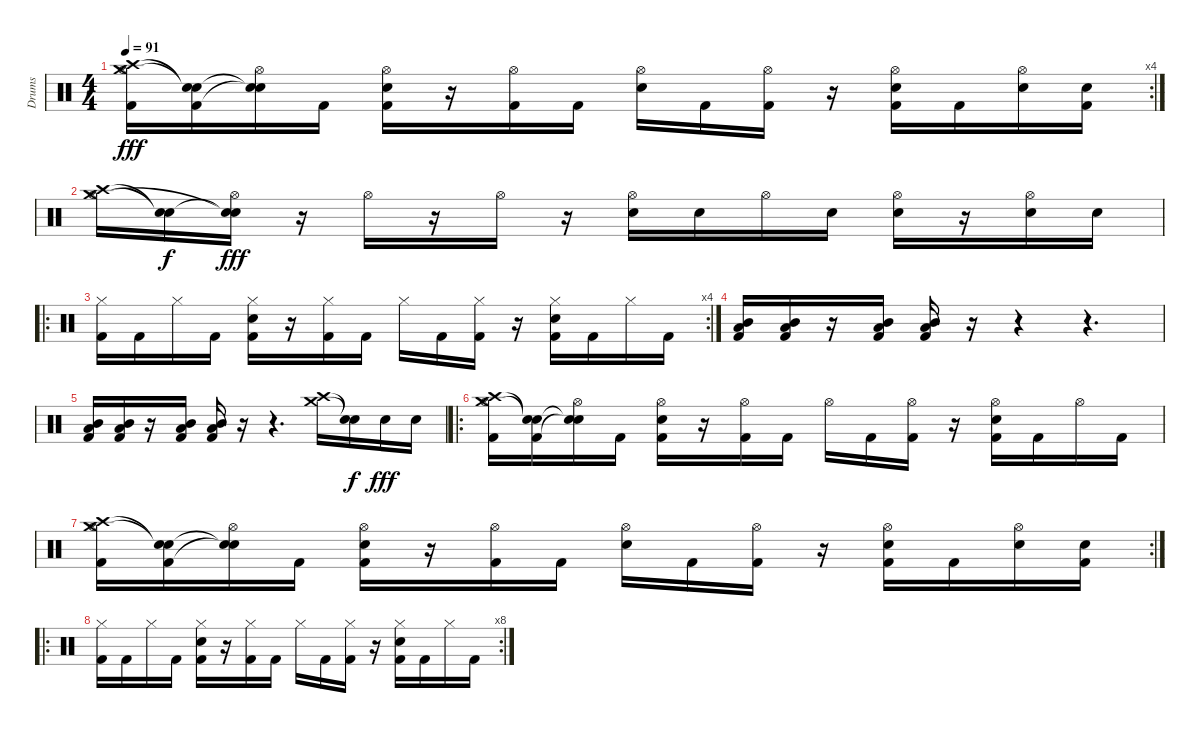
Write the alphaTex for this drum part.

\track ("Drums" "Drums") {instrument percussion}
\staff {score}
\articulation defaults
\rc 4
\ts (4 4)
\tempo 91
\clef neutral
\ks c
("Hi-Hat (open)" "Crash high (hit)" "Crash medium (hit)" "Kick (hit) 2").16{dy fff} ("Snare (hit)"{t} "Snare (hit)"{t} "Kick (hit) 2").16 ("Hi-Hat (open)" "Snare (hit)"{t} "Snare (hit)"{t}).16 "Kick (hit) 2".16 ("Hi-Hat (open)" "Snare (hit) 2" "Kick (hit) 2").16 r.16 ("Hi-Hat (open)" "Kick (hit) 2").16 "Kick (hit) 2".16 ("Hi-Hat (open)" "Snare (hit) 2").16 "Kick (hit) 2".16 ("Hi-Hat (open)" "Kick (hit) 2").16 r.16 ("Hi-Hat (open)" "Snare (hit) 2" "Kick (hit) 2").16 "Kick (hit) 2".16 ("Hi-Hat (open)" "Snare (hit) 2").16 ("Snare (hit) 2" "Kick (hit) 2").16 |
("Hi-Hat (open)" "Crash high (hit)" "Crash medium (hit)").16 ("Snare (hit)"{t} "Snare (hit)"{t}).16{dy f} ("Hi-Hat (open)" "Snare (hit)"{t} "Snare (hit)"{t}).16{dy fff} r.16 "Hi-Hat (open)".16 r.16 "Hi-Hat (open)".16 r.16 ("Hi-Hat (open)" "Snare (hit) 2").16 "Snare (hit) 2".16 "Hi-Hat (open)".16 "Snare (hit) 2".16 ("Hi-Hat (open)" "Snare (hit) 2").16 r.16 ("Hi-Hat (open)" "Snare (hit) 2").16 "Snare (hit) 2".16 |
\ro
\rc 4
("Hi-Hat (closed)" "Kick (hit) 2").16 "Kick (hit) 2".16 "Hi-Hat (closed)".16 "Kick (hit) 2".16 ("Hi-Hat (closed)" "Snare (hit) 2" "Kick (hit) 2").16 r.16 ("Hi-Hat (closed)" "Kick (hit) 2").16 "Kick (hit) 2".16 "Hi-Hat (closed)".16 "Kick (hit) 2".16 ("Hi-Hat (closed)" "Kick (hit) 2").16 r.16 ("Hi-Hat (closed)" "Snare (hit) 2" "Kick (hit) 2").16 "Kick (hit) 2".16 "Hi-Hat (closed)".16 "Kick (hit) 2".16 |
("Mid Tom (hit)" "Low Tom (hit)" "Kick (hit) 2").16 ("Mid Tom (hit)" "Low Tom (hit)" "Kick (hit) 2").16 r.16 ("Mid Tom (hit)" "Low Tom (hit)" "Kick (hit) 2").16 ("Mid Tom (hit)" "Low Tom (hit)" "Kick (hit) 2").16 r.16 r.4 r.4{d} |
("Mid Tom (hit)" "Low Tom (hit)" "Kick (hit) 2").16 ("Mid Tom (hit)" "Low Tom (hit)" "Kick (hit) 2").16 r.16 ("Mid Tom (hit)" "Low Tom (hit)" "Kick (hit) 2").16 ("Mid Tom (hit)" "Low Tom (hit)" "Kick (hit) 2").16 r.16 r.4{d} ("Crash high (hit)" "Crash medium (hit)").16 ("Snare (hit)"{t} "Snare (hit)"{t}).16{dy f} "Snare (hit) 2".16{dy fff} "Snare (hit) 2".16 |
\ro
("Hi-Hat (open)" "Crash high (hit)" "Crash medium (hit)" "Kick (hit) 2").16 ("Snare (hit)"{t} "Snare (hit)"{t} "Kick (hit) 2").16 ("Hi-Hat (open)" "Snare (hit)"{t} "Snare (hit)"{t}).16 "Kick (hit) 2".16 ("Hi-Hat (open)" "Snare (hit) 2" "Kick (hit) 2").16 r.16 ("Hi-Hat (open)" "Kick (hit) 2").16 "Kick (hit) 2".16 "Hi-Hat (open)".16 "Kick (hit) 2".16 ("Hi-Hat (open)" "Kick (hit) 2").16 r.16 ("Hi-Hat (open)" "Snare (hit) 2" "Kick (hit) 2").16 "Kick (hit) 2".16 "Hi-Hat (open)".16 "Kick (hit) 2".16 |
\rc 2
("Hi-Hat (open)" "Crash high (hit)" "Crash medium (hit)" "Kick (hit) 2").16 ("Snare (hit)"{t} "Snare (hit)"{t} "Kick (hit) 2").16 ("Hi-Hat (open)" "Snare (hit)"{t} "Snare (hit)"{t}).16 "Kick (hit) 2".16 ("Hi-Hat (open)" "Snare (hit) 2" "Kick (hit) 2").16 r.16 ("Hi-Hat (open)" "Kick (hit) 2").16 "Kick (hit) 2".16 ("Hi-Hat (open)" "Snare (hit) 2").16 "Kick (hit) 2".16 ("Hi-Hat (open)" "Kick (hit) 2").16 r.16 ("Hi-Hat (open)" "Snare (hit) 2" "Kick (hit) 2").16 "Kick (hit) 2".16 ("Hi-Hat (open)" "Snare (hit) 2").16 ("Snare (hit) 2" "Kick (hit) 2").16 |
\ro
\rc 8
("Hi-Hat (closed)" "Kick (hit) 2").16 "Kick (hit) 2".16 "Hi-Hat (closed)".16 "Kick (hit) 2".16 ("Hi-Hat (closed)" "Snare (hit) 2" "Kick (hit) 2").16 r.16 ("Hi-Hat (closed)" "Kick (hit) 2").16 "Kick (hit) 2".16 "Hi-Hat (closed)".16 "Kick (hit) 2".16 ("Hi-Hat (closed)" "Kick (hit) 2").16 r.16 ("Hi-Hat (closed)" "Snare (hit) 2" "Kick (hit) 2").16 "Kick (hit) 2".16 "Hi-Hat (closed)".16 "Kick (hit) 2".16
